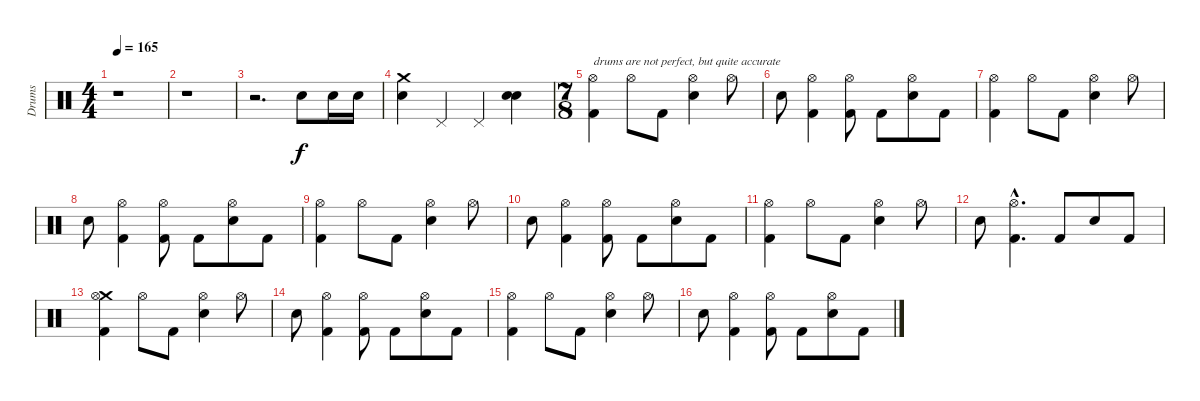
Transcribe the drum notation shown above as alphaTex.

\track ("Drums" "Drums") {instrument percussion}
\staff {score}
\articulation defaults
\ts (4 4)
\tempo 165
\clef neutral
\ks c
r.1{dy f} |
r.1 |
r.2{d} "Electric Snare (hit)".8 "Snare (hit) 2".16 "Snare (hit) 2".16 |
("Crash medium (hit)" "Snare (hit) 2").4 "Pedal Hi-Hat (hit)".4 "Pedal Hi-Hat (hit)".4 ("Electric Snare (hit)" "Snare (hit) 2").4 |
\ts (7 8)
("Hi-Hat (open)" "Kick (hit) 2").4{txt "drums are not perfect, but quite accurate"} "Hi-Hat (open)".8 "Kick (hit) 2".8 ("Hi-Hat (open)" "Electric Snare (hit)").4 "Hi-Hat (open)".8 |
"Snare (hit) 2".8 ("Hi-Hat (open)" "Kick (hit) 2").4 ("Hi-Hat (open)" "Kick (hit) 2").8 "Kick (hit) 2".8 ("Hi-Hat (open)" "Electric Snare (hit)").8 "Kick (hit) 2".8 |
("Hi-Hat (open)" "Kick (hit) 2").4 "Hi-Hat (open)".8 "Kick (hit) 2".8 ("Hi-Hat (open)" "Electric Snare (hit)").4 "Hi-Hat (open)".8 |
"Snare (hit) 2".8 ("Hi-Hat (open)" "Kick (hit) 2").4 ("Hi-Hat (open)" "Kick (hit) 2").8 "Kick (hit) 2".8 ("Hi-Hat (open)" "Electric Snare (hit)").8 "Kick (hit) 2".8 |
("Hi-Hat (open)" "Kick (hit) 2").4 "Hi-Hat (open)".8 "Kick (hit) 2".8 ("Hi-Hat (open)" "Electric Snare (hit)").4 "Hi-Hat (open)".8 |
"Snare (hit) 2".8 ("Hi-Hat (open)" "Kick (hit) 2").4 ("Hi-Hat (open)" "Kick (hit) 2").8 "Kick (hit) 2".8 ("Hi-Hat (open)" "Electric Snare (hit)").8 "Kick (hit) 2".8 |
("Hi-Hat (open)" "Kick (hit) 2").4 "Hi-Hat (open)".8 "Kick (hit) 2".8 ("Hi-Hat (open)" "Electric Snare (hit)").4 "Hi-Hat (open)".8 |
"Snare (hit) 2".8 ("Hi-Hat (open)"{hac} "Kick (hit) 2"{hac}).4{d} "Kick (hit) 2".8 "Electric Snare (hit)".8 "Kick (hit) 2".8 |
("Crash medium (hit)" "Hi-Hat (open)" "Kick (hit) 2").4 "Hi-Hat (open)".8 "Kick (hit) 2".8 ("Hi-Hat (open)" "Electric Snare (hit)").4 "Hi-Hat (open)".8 |
"Snare (hit) 2".8 ("Hi-Hat (open)" "Kick (hit) 2").4 ("Hi-Hat (open)" "Kick (hit) 2").8 "Kick (hit) 2".8 ("Hi-Hat (open)" "Electric Snare (hit)").8 "Kick (hit) 2".8 |
("Hi-Hat (open)" "Kick (hit) 2").4 "Hi-Hat (open)".8 "Kick (hit) 2".8 ("Hi-Hat (open)" "Electric Snare (hit)").4 "Hi-Hat (open)".8 |
"Snare (hit) 2".8 ("Hi-Hat (open)" "Kick (hit) 2").4 ("Hi-Hat (open)" "Kick (hit) 2").8 "Kick (hit) 2".8 ("Hi-Hat (open)" "Electric Snare (hit)").8 "Kick (hit) 2".8
